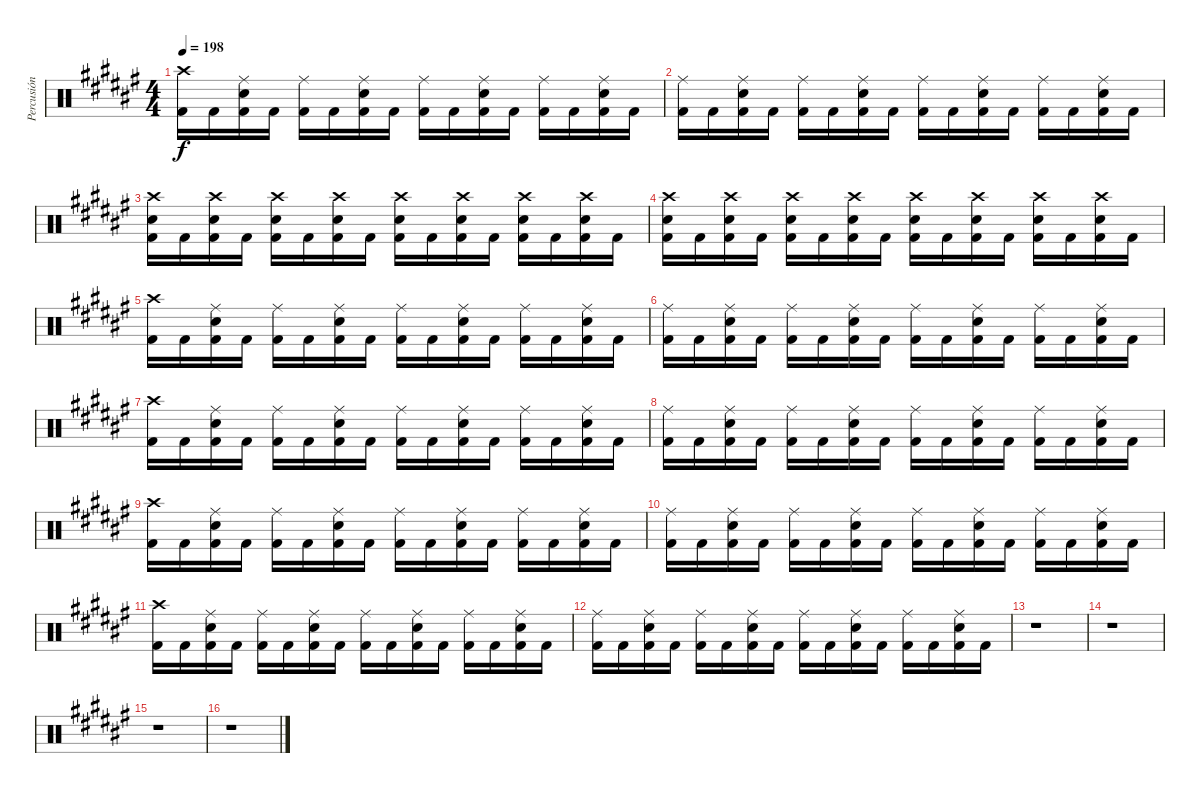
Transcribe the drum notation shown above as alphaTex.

\track ("Percusión" "Percusión") {instrument percussion}
\staff {score}
\articulation defaults
\ts (4 4)
\tempo 198
\clef neutral
\ks d#minor
("Crash high (hit)" "Kick (hit) 2").16{dy f} "Kick (hit) 2".16 ("Ride (middle)" "Snare (hit) 2" "Kick (hit) 2").16 "Kick (hit) 2".16 ("Ride (middle)" "Kick (hit) 2").16 "Kick (hit) 2".16 ("Ride (middle)" "Snare (hit) 2" "Kick (hit) 2").16 "Kick (hit) 2".16 ("Ride (middle)" "Kick (hit) 2").16 "Kick (hit) 2".16 ("Ride (middle)" "Snare (hit) 2" "Kick (hit) 2").16 "Kick (hit) 2".16 ("Ride (middle)" "Kick (hit) 2").16 "Kick (hit) 2".16 ("Ride (middle)" "Snare (hit) 2" "Kick (hit) 2").16 "Kick (hit) 2".16 |
("Ride (middle)" "Kick (hit) 2").16 "Kick (hit) 2".16 ("Ride (middle)" "Snare (hit) 2" "Kick (hit) 2").16 "Kick (hit) 2".16 ("Ride (middle)" "Kick (hit) 2").16 "Kick (hit) 2".16 ("Ride (middle)" "Snare (hit) 2" "Kick (hit) 2").16 "Kick (hit) 2".16 ("Ride (middle)" "Kick (hit) 2").16 "Kick (hit) 2".16 ("Ride (middle)" "Snare (hit) 2" "Kick (hit) 2").16 "Kick (hit) 2".16 ("Ride (middle)" "Kick (hit) 2").16 "Kick (hit) 2".16 ("Ride (middle)" "Snare (hit) 2" "Kick (hit) 2").16 "Kick (hit) 2".16 |
("Crash high (hit)" "Snare (hit) 2" "Kick (hit) 2").16 "Kick (hit) 2".16 ("Crash high (hit)" "Snare (hit) 2" "Kick (hit) 2").16 "Kick (hit) 2".16 ("Crash high (hit)" "Snare (hit) 2" "Kick (hit) 2").16 "Kick (hit) 2".16 ("Crash high (hit)" "Snare (hit) 2" "Kick (hit) 2").16 "Kick (hit) 2".16 ("Crash high (hit)" "Snare (hit) 2" "Kick (hit) 2").16 "Kick (hit) 2".16 ("Crash high (hit)" "Snare (hit) 2" "Kick (hit) 2").16 "Kick (hit) 2".16 ("Crash high (hit)" "Snare (hit) 2" "Kick (hit) 2").16 "Kick (hit) 2".16 ("Crash high (hit)" "Snare (hit) 2" "Kick (hit) 2").16 "Kick (hit) 2".16 |
("Crash high (hit)" "Snare (hit) 2" "Kick (hit) 2").16 "Kick (hit) 2".16 ("Crash high (hit)" "Snare (hit) 2" "Kick (hit) 2").16 "Kick (hit) 2".16 ("Crash high (hit)" "Snare (hit) 2" "Kick (hit) 2").16 "Kick (hit) 2".16 ("Crash high (hit)" "Snare (hit) 2" "Kick (hit) 2").16 "Kick (hit) 2".16 ("Crash high (hit)" "Snare (hit) 2" "Kick (hit) 2").16 "Kick (hit) 2".16 ("Crash high (hit)" "Snare (hit) 2" "Kick (hit) 2").16 "Kick (hit) 2".16 ("Crash high (hit)" "Snare (hit) 2" "Kick (hit) 2").16 "Kick (hit) 2".16 ("Crash high (hit)" "Snare (hit) 2" "Kick (hit) 2").16 "Kick (hit) 2".16 |
("Crash high (hit)" "Kick (hit) 2").16 "Kick (hit) 2".16 ("Ride (middle)" "Snare (hit) 2" "Kick (hit) 2").16 "Kick (hit) 2".16 ("Ride (middle)" "Kick (hit) 2").16 "Kick (hit) 2".16 ("Ride (middle)" "Snare (hit) 2" "Kick (hit) 2").16 "Kick (hit) 2".16 ("Ride (middle)" "Kick (hit) 2").16 "Kick (hit) 2".16 ("Ride (middle)" "Snare (hit) 2" "Kick (hit) 2").16 "Kick (hit) 2".16 ("Ride (middle)" "Kick (hit) 2").16 "Kick (hit) 2".16 ("Ride (middle)" "Snare (hit) 2" "Kick (hit) 2").16 "Kick (hit) 2".16 |
("Ride (middle)" "Kick (hit) 2").16 "Kick (hit) 2".16 ("Ride (middle)" "Snare (hit) 2" "Kick (hit) 2").16 "Kick (hit) 2".16 ("Ride (middle)" "Kick (hit) 2").16 "Kick (hit) 2".16 ("Ride (middle)" "Snare (hit) 2" "Kick (hit) 2").16 "Kick (hit) 2".16 ("Ride (middle)" "Kick (hit) 2").16 "Kick (hit) 2".16 ("Ride (middle)" "Snare (hit) 2" "Kick (hit) 2").16 "Kick (hit) 2".16 ("Ride (middle)" "Kick (hit) 2").16 "Kick (hit) 2".16 ("Ride (middle)" "Snare (hit) 2" "Kick (hit) 2").16 "Kick (hit) 2".16 |
("Crash high (hit)" "Kick (hit) 2").16 "Kick (hit) 2".16 ("Ride (middle)" "Snare (hit) 2" "Kick (hit) 2").16 "Kick (hit) 2".16 ("Ride (middle)" "Kick (hit) 2").16 "Kick (hit) 2".16 ("Ride (middle)" "Snare (hit) 2" "Kick (hit) 2").16 "Kick (hit) 2".16 ("Ride (middle)" "Kick (hit) 2").16 "Kick (hit) 2".16 ("Ride (middle)" "Snare (hit) 2" "Kick (hit) 2").16 "Kick (hit) 2".16 ("Ride (middle)" "Kick (hit) 2").16 "Kick (hit) 2".16 ("Ride (middle)" "Snare (hit) 2" "Kick (hit) 2").16 "Kick (hit) 2".16 |
("Ride (middle)" "Kick (hit) 2").16 "Kick (hit) 2".16 ("Ride (middle)" "Snare (hit) 2" "Kick (hit) 2").16 "Kick (hit) 2".16 ("Ride (middle)" "Kick (hit) 2").16 "Kick (hit) 2".16 ("Ride (middle)" "Snare (hit) 2" "Kick (hit) 2").16 "Kick (hit) 2".16 ("Ride (middle)" "Kick (hit) 2").16 "Kick (hit) 2".16 ("Ride (middle)" "Snare (hit) 2" "Kick (hit) 2").16 "Kick (hit) 2".16 ("Ride (middle)" "Kick (hit) 2").16 "Kick (hit) 2".16 ("Ride (middle)" "Snare (hit) 2" "Kick (hit) 2").16 "Kick (hit) 2".16 |
("Crash high (hit)" "Kick (hit) 2").16 "Kick (hit) 2".16 ("Ride (middle)" "Snare (hit) 2" "Kick (hit) 2").16 "Kick (hit) 2".16 ("Ride (middle)" "Kick (hit) 2").16 "Kick (hit) 2".16 ("Ride (middle)" "Snare (hit) 2" "Kick (hit) 2").16 "Kick (hit) 2".16 ("Ride (middle)" "Kick (hit) 2").16 "Kick (hit) 2".16 ("Ride (middle)" "Snare (hit) 2" "Kick (hit) 2").16 "Kick (hit) 2".16 ("Ride (middle)" "Kick (hit) 2").16 "Kick (hit) 2".16 ("Ride (middle)" "Snare (hit) 2" "Kick (hit) 2").16 "Kick (hit) 2".16 |
("Ride (middle)" "Kick (hit) 2").16 "Kick (hit) 2".16 ("Ride (middle)" "Snare (hit) 2" "Kick (hit) 2").16 "Kick (hit) 2".16 ("Ride (middle)" "Kick (hit) 2").16 "Kick (hit) 2".16 ("Ride (middle)" "Snare (hit) 2" "Kick (hit) 2").16 "Kick (hit) 2".16 ("Ride (middle)" "Kick (hit) 2").16 "Kick (hit) 2".16 ("Ride (middle)" "Snare (hit) 2" "Kick (hit) 2").16 "Kick (hit) 2".16 ("Ride (middle)" "Kick (hit) 2").16 "Kick (hit) 2".16 ("Ride (middle)" "Snare (hit) 2" "Kick (hit) 2").16 "Kick (hit) 2".16 |
("Crash high (hit)" "Kick (hit) 2").16 "Kick (hit) 2".16 ("Ride (middle)" "Snare (hit) 2" "Kick (hit) 2").16 "Kick (hit) 2".16 ("Ride (middle)" "Kick (hit) 2").16 "Kick (hit) 2".16 ("Ride (middle)" "Snare (hit) 2" "Kick (hit) 2").16 "Kick (hit) 2".16 ("Ride (middle)" "Kick (hit) 2").16 "Kick (hit) 2".16 ("Ride (middle)" "Snare (hit) 2" "Kick (hit) 2").16 "Kick (hit) 2".16 ("Ride (middle)" "Kick (hit) 2").16 "Kick (hit) 2".16 ("Ride (middle)" "Snare (hit) 2" "Kick (hit) 2").16 "Kick (hit) 2".16 |
("Ride (middle)" "Kick (hit) 2").16 "Kick (hit) 2".16 ("Ride (middle)" "Snare (hit) 2" "Kick (hit) 2").16 "Kick (hit) 2".16 ("Ride (middle)" "Kick (hit) 2").16 "Kick (hit) 2".16 ("Ride (middle)" "Snare (hit) 2" "Kick (hit) 2").16 "Kick (hit) 2".16 ("Ride (middle)" "Kick (hit) 2").16 "Kick (hit) 2".16 ("Ride (middle)" "Snare (hit) 2" "Kick (hit) 2").16 "Kick (hit) 2".16 ("Ride (middle)" "Kick (hit) 2").16 "Kick (hit) 2".16 ("Ride (middle)" "Snare (hit) 2" "Kick (hit) 2").16 "Kick (hit) 2".16 |
r.1 |
r.1 |
r.1 |
r.1
